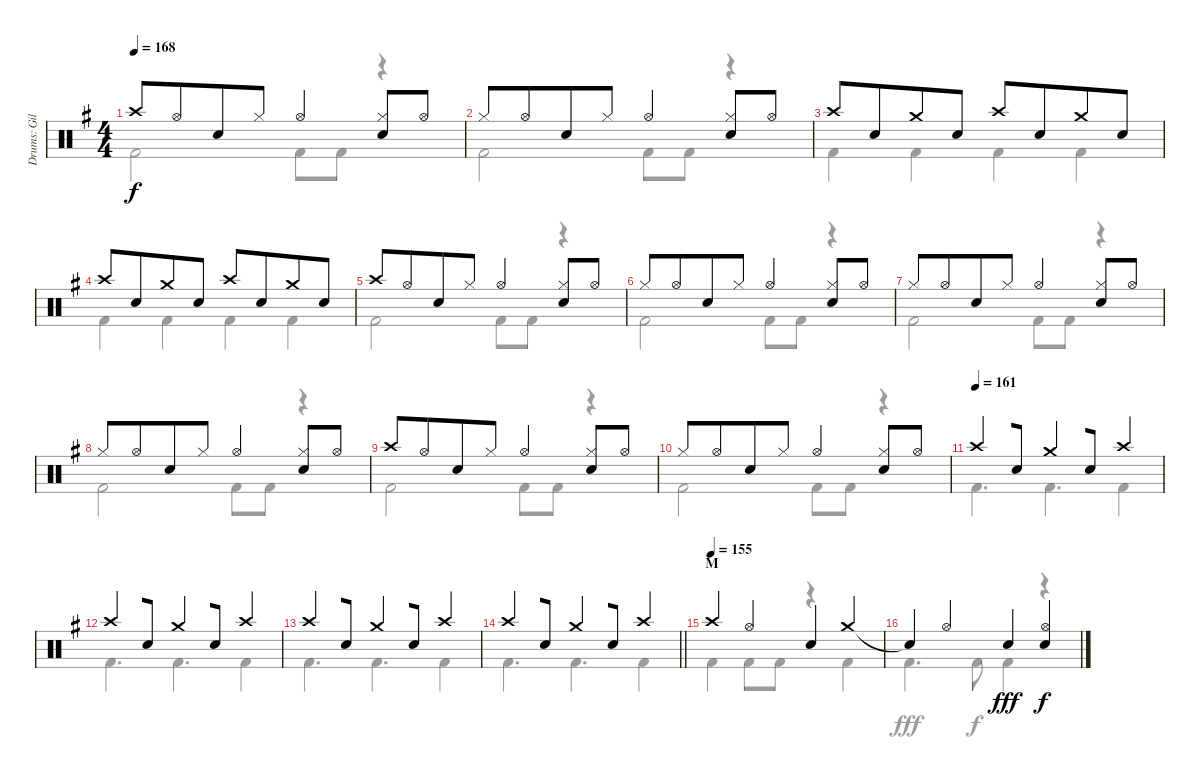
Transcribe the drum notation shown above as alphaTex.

\track ("Drums: Gil" "Drums: Gil") {instrument percussion}
\staff {score}
\articulation defaults
\voice
\ts (4 4)
\tempo 168
\clef neutral
\ks g "Crash high (hit)".8{dy f} "Hi-Hat (open)".8{beam merge} "Snare (hit) 2".8 "Hi-Hat (closed)".8 "Hi-Hat (open)".4{beam merge}
("Hi-Hat (closed)" "Snare (hit) 2").8 "Hi-Hat (open)".8 |
"Hi-Hat (closed)".8 "Hi-Hat (open)".8{beam merge} "Snare (hit) 2".8 "Hi-Hat (closed)".8 "Hi-Hat (open)".4{beam merge} ("Hi-Hat (closed)" "Snare (hit) 2").8 "Hi-Hat (open)".8 |
"Crash high (hit)".8 "Snare (hit) 2".8{beam merge} "Crash medium (hit)".8 "Snare (hit) 2".8 "Crash high (hit)".8 "Snare (hit) 2".8{beam merge} "Crash medium (hit)".8 "Snare (hit) 2".8 |
"Crash high (hit)".8 "Snare (hit) 2".8{beam merge} "Crash medium (hit)".8 "Snare (hit) 2".8 "Crash high (hit)".8 "Snare (hit) 2".8{beam merge} "Crash medium (hit)".8 "Snare (hit) 2".8 |
"Crash high (hit)".8 "Hi-Hat (open)".8{beam merge} "Snare (hit) 2".8 "Hi-Hat (closed)".8 "Hi-Hat (open)".4{beam merge} ("Hi-Hat (closed)" "Snare (hit) 2").8 "Hi-Hat (open)".8 |
"Hi-Hat (closed)".8 "Hi-Hat (open)".8{beam merge} "Snare (hit) 2".8 "Hi-Hat (closed)".8 "Hi-Hat (open)".4{beam merge} ("Hi-Hat (closed)" "Snare (hit) 2").8 "Hi-Hat (open)".8 |
"Hi-Hat (closed)".8 "Hi-Hat (open)".8{beam merge} "Snare (hit) 2".8 "Hi-Hat (closed)".8 "Hi-Hat (open)".4{beam merge} ("Hi-Hat (closed)" "Snare (hit) 2").8 "Hi-Hat (open)".8 |
"Hi-Hat (closed)".8 "Hi-Hat (open)".8{beam merge} "Snare (hit) 2".8 "Hi-Hat (closed)".8 "Hi-Hat (open)".4{beam merge} ("Hi-Hat (closed)" "Snare (hit) 2").8 "Hi-Hat (open)".8 |
"Crash high (hit)".8 "Hi-Hat (open)".8{beam merge} "Snare (hit) 2".8 "Hi-Hat (closed)".8 "Hi-Hat (open)".4{beam merge} ("Hi-Hat (closed)" "Snare (hit) 2").8 "Hi-Hat (open)".8 |
"Hi-Hat (closed)".8 "Hi-Hat (open)".8{beam merge} "Snare (hit) 2".8 "Hi-Hat (closed)".8 "Hi-Hat (open)".4{beam merge} ("Hi-Hat (closed)" "Snare (hit) 2").8 "Hi-Hat (open)".8 |
\tempo (161)
"Crash high (hit)".4{beam merge} "Snare (hit) 2".8 "Crash medium (hit)".4{beam merge} "Snare (hit) 2".8 "Crash high (hit)".4 |
"Crash high (hit)".4{beam merge} "Snare (hit) 2".8 "Crash medium (hit)".4{beam merge} "Snare (hit) 2".8 "Crash high (hit)".4 |
"Crash high (hit)".4{beam merge} "Snare (hit) 2".8 "Crash medium (hit)".4{beam merge} "Snare (hit) 2".8 "Crash high (hit)".4 |
\barLineRight lightlight "Crash high (hit)".4{beam merge} "Snare (hit) 2".8 "Crash medium (hit)".4{beam merge} "Snare (hit) 2".8 "Crash high (hit)".4
|
\section ("" "M")
\tempo (155)
"Crash high (hit)".4{beam merge} "Hi-Hat (open)".4 "Snare (hit) 2".4{beam merge} "Crash medium (hit)".4 |
"Snare (hit)"{t}.4{beam merge} "Hi-Hat (open)".4 "Snare (hit) 2".4{dy fff beam merge} ("Hi-Hat (open)" "Snare (hit) 2").4{dy f}
\voice
\clef neutral
\ottava regular
\simile none
\ks g "Kick (hit) 2".2{dy f} "Kick (hit) 2".8 "Kick (hit) 2".8
r.4 |
"Kick (hit) 2".2 "Kick (hit) 2".8 "Kick (hit) 2".8 r.4 |
"Kick (hit) 2".4 "Kick (hit) 2".4 "Kick (hit) 2".4 "Kick (hit) 2".4 |
"Kick (hit) 2".4 "Kick (hit) 2".4 "Kick (hit) 2".4 "Kick (hit) 2".4 |
"Kick (hit) 2".2 "Kick (hit) 2".8 "Kick (hit) 2".8 r.4 |
"Kick (hit) 2".2 "Kick (hit) 2".8 "Kick (hit) 2".8 r.4 |
"Kick (hit) 2".2 "Kick (hit) 2".8 "Kick (hit) 2".8 r.4 |
"Kick (hit) 2".2 "Kick (hit) 2".8 "Kick (hit) 2".8 r.4 |
"Kick (hit) 2".2 "Kick (hit) 2".8 "Kick (hit) 2".8 r.4 |
"Kick (hit) 2".2 "Kick (hit) 2".8 "Kick (hit) 2".8 r.4 |
"Kick (hit) 2".4{d} "Kick (hit) 2".4{d} "Kick (hit) 2".4 |
"Kick (hit) 2".4{d} "Kick (hit) 2".4{d} "Kick (hit) 2".4 |
"Kick (hit) 2".4{d} "Kick (hit) 2".4{d} "Kick (hit) 2".4 |
\barLineRight lightlight "Kick (hit) 2".4{d} "Kick (hit) 2".4{d} "Kick (hit) 2".4
|
"Kick (hit) 2".4 "Kick (hit) 2".8 "Kick (hit) 2".8 r.4 "Kick (hit) 2".4 |
"Kick (hit) 2".4{d dy fff} "Kick (hit) 2".8{dy f} "Kick (hit) 2".4 r.4
